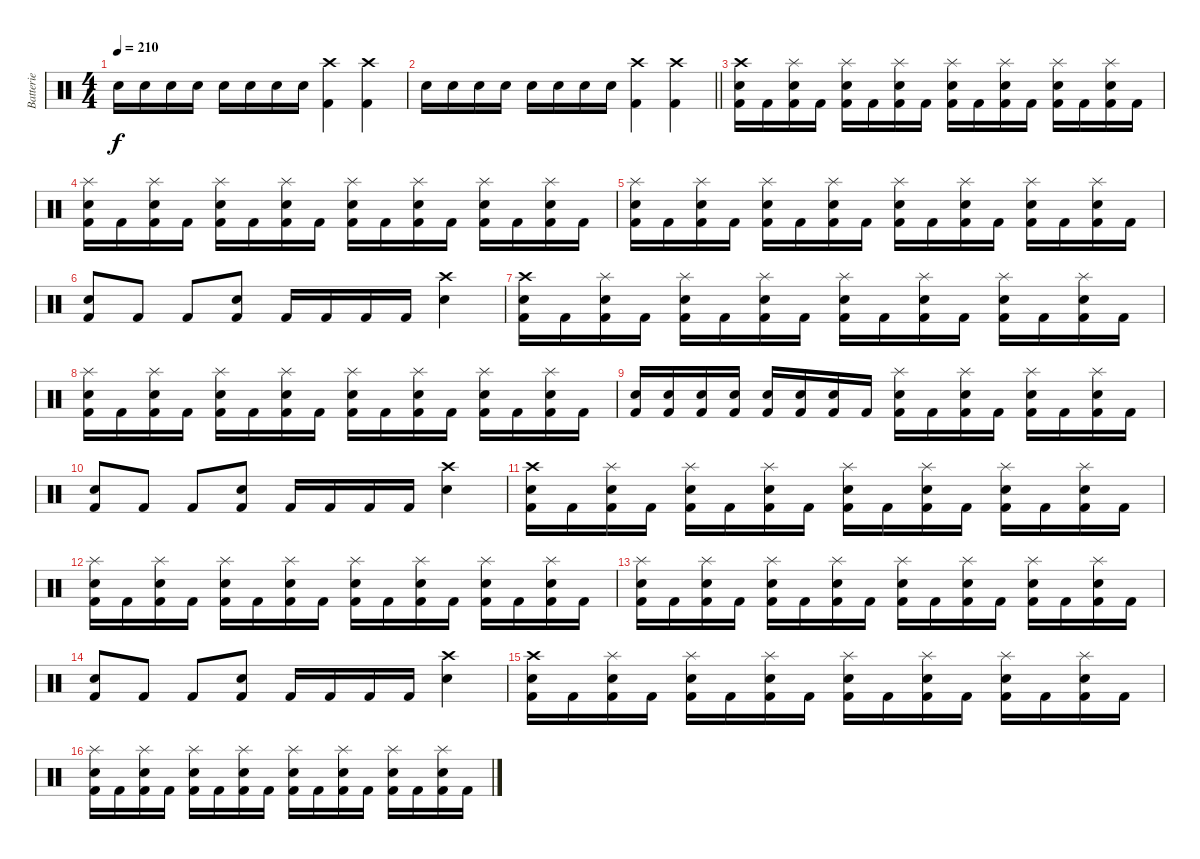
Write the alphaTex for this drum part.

\track ("Batterie" "Batterie") {instrument percussion}
\staff {score}
\articulation defaults
\ts (4 4)
\tempo 210
\clef neutral
\ks c "Electric Snare (hit)".16{dy f} "Electric Snare (hit)".16 "Electric Snare (hit)".16 "Electric Snare (hit)".16 "Electric Snare (hit)".16 "Electric Snare (hit)".16 "Electric Snare (hit)".16 "Electric Snare (hit)".16
("Crash high (hit)" "Kick (hit) 2").4 ("Crash high (hit)" "Kick (hit) 2").4 |
\barLineRight lightlight "Electric Snare (hit)".16 "Electric Snare (hit)".16 "Electric Snare (hit)".16 "Electric Snare (hit)".16 "Electric Snare (hit)".16 "Electric Snare (hit)".16 "Electric Snare (hit)".16 "Electric Snare (hit)".16
("Crash high (hit)" "Kick (hit) 2").4 ("Crash high (hit)" "Kick (hit) 2").4 |
("Crash high (hit)" "Electric Snare (hit)" "Kick (hit) 2").16 "Kick (hit) 2".16 ("Splash (hit)" "Electric Snare (hit)" "Kick (hit) 2").16 "Kick (hit) 2".16 ("Splash (hit)" "Electric Snare (hit)" "Kick (hit) 2").16 "Kick (hit) 2".16 ("Splash (hit)" "Electric Snare (hit)" "Kick (hit) 2").16 "Kick (hit) 2".16 ("Splash (hit)" "Electric Snare (hit)" "Kick (hit) 2").16 "Kick (hit) 2".16 ("Splash (hit)" "Electric Snare (hit)" "Kick (hit) 2").16 "Kick (hit) 2".16 ("Splash (hit)" "Electric Snare (hit)" "Kick (hit) 2").16 "Kick (hit) 2".16 ("Splash (hit)" "Electric Snare (hit)" "Kick (hit) 2").16 "Kick (hit) 2".16 |
("Splash (hit)" "Electric Snare (hit)" "Kick (hit) 2").16 "Kick (hit) 2".16 ("Splash (hit)" "Electric Snare (hit)" "Kick (hit) 2").16 "Kick (hit) 2".16 ("Splash (hit)" "Electric Snare (hit)" "Kick (hit) 2").16 "Kick (hit) 2".16 ("Splash (hit)" "Electric Snare (hit)" "Kick (hit) 2").16 "Kick (hit) 2".16 ("Splash (hit)" "Electric Snare (hit)" "Kick (hit) 2").16 "Kick (hit) 2".16 ("Splash (hit)" "Electric Snare (hit)" "Kick (hit) 2").16 "Kick (hit) 2".16 ("Splash (hit)" "Electric Snare (hit)" "Kick (hit) 2").16 "Kick (hit) 2".16 ("Splash (hit)" "Electric Snare (hit)" "Kick (hit) 2").16 "Kick (hit) 2".16 |
("Splash (hit)" "Electric Snare (hit)" "Kick (hit) 2").16 "Kick (hit) 2".16 ("Splash (hit)" "Electric Snare (hit)" "Kick (hit) 2").16 "Kick (hit) 2".16 ("Splash (hit)" "Electric Snare (hit)" "Kick (hit) 2").16 "Kick (hit) 2".16 ("Splash (hit)" "Electric Snare (hit)" "Kick (hit) 2").16 "Kick (hit) 2".16 ("Splash (hit)" "Electric Snare (hit)" "Kick (hit) 2").16 "Kick (hit) 2".16 ("Splash (hit)" "Electric Snare (hit)" "Kick (hit) 2").16 "Kick (hit) 2".16 ("Splash (hit)" "Electric Snare (hit)" "Kick (hit) 2").16 "Kick (hit) 2".16 ("Splash (hit)" "Electric Snare (hit)" "Kick (hit) 2").16 "Kick (hit) 2".16 |
("Electric Snare (hit)" "Kick (hit) 2").8 "Kick (hit) 2".8 "Kick (hit) 2".8 ("Electric Snare (hit)" "Kick (hit) 2").8 "Kick (hit) 2".16 "Kick (hit) 2".16 "Kick (hit) 2".16 "Kick (hit) 2".16 ("Crash high (hit)" "Electric Snare (hit)").4 |
("Crash high (hit)" "Electric Snare (hit)" "Kick (hit) 2").16 "Kick (hit) 2".16 ("Splash (hit)" "Electric Snare (hit)" "Kick (hit) 2").16 "Kick (hit) 2".16 ("Splash (hit)" "Electric Snare (hit)" "Kick (hit) 2").16 "Kick (hit) 2".16 ("Splash (hit)" "Electric Snare (hit)" "Kick (hit) 2").16 "Kick (hit) 2".16 ("Splash (hit)" "Electric Snare (hit)" "Kick (hit) 2").16 "Kick (hit) 2".16 ("Splash (hit)" "Electric Snare (hit)" "Kick (hit) 2").16 "Kick (hit) 2".16 ("Splash (hit)" "Electric Snare (hit)" "Kick (hit) 2").16 "Kick (hit) 2".16 ("Splash (hit)" "Electric Snare (hit)" "Kick (hit) 2").16 "Kick (hit) 2".16 |
("Splash (hit)" "Electric Snare (hit)" "Kick (hit) 2").16 "Kick (hit) 2".16 ("Splash (hit)" "Electric Snare (hit)" "Kick (hit) 2").16 "Kick (hit) 2".16 ("Splash (hit)" "Electric Snare (hit)" "Kick (hit) 2").16 "Kick (hit) 2".16 ("Splash (hit)" "Electric Snare (hit)" "Kick (hit) 2").16 "Kick (hit) 2".16 ("Splash (hit)" "Electric Snare (hit)" "Kick (hit) 2").16 "Kick (hit) 2".16 ("Splash (hit)" "Electric Snare (hit)" "Kick (hit) 2").16 "Kick (hit) 2".16 ("Splash (hit)" "Electric Snare (hit)" "Kick (hit) 2").16 "Kick (hit) 2".16 ("Splash (hit)" "Electric Snare (hit)" "Kick (hit) 2").16 "Kick (hit) 2".16 |
("Electric Snare (hit)" "Kick (hit) 2").16 ("Electric Snare (hit)" "Kick (hit) 2").16 ("Electric Snare (hit)" "Kick (hit) 2").16 ("Electric Snare (hit)" "Kick (hit) 2").16 ("Electric Snare (hit)" "Kick (hit) 2").16 ("Electric Snare (hit)" "Kick (hit) 2").16 ("Electric Snare (hit)" "Kick (hit) 2").16 "Kick (hit) 2".16 ("Splash (hit)" "Electric Snare (hit)" "Kick (hit) 2").16 "Kick (hit) 2".16 ("Splash (hit)" "Electric Snare (hit)" "Kick (hit) 2").16 "Kick (hit) 2".16 ("Splash (hit)" "Electric Snare (hit)" "Kick (hit) 2").16 "Kick (hit) 2".16 ("Splash (hit)" "Electric Snare (hit)" "Kick (hit) 2").16 "Kick (hit) 2".16 |
("Electric Snare (hit)" "Kick (hit) 2").8 "Kick (hit) 2".8 "Kick (hit) 2".8 ("Electric Snare (hit)" "Kick (hit) 2").8 "Kick (hit) 2".16 "Kick (hit) 2".16 "Kick (hit) 2".16 "Kick (hit) 2".16 ("Crash high (hit)" "Electric Snare (hit)").4 |
("Crash high (hit)" "Electric Snare (hit)" "Kick (hit) 2").16 "Kick (hit) 2".16 ("Splash (hit)" "Electric Snare (hit)" "Kick (hit) 2").16 "Kick (hit) 2".16 ("Splash (hit)" "Electric Snare (hit)" "Kick (hit) 2").16 "Kick (hit) 2".16 ("Splash (hit)" "Electric Snare (hit)" "Kick (hit) 2").16 "Kick (hit) 2".16 ("Splash (hit)" "Electric Snare (hit)" "Kick (hit) 2").16 "Kick (hit) 2".16 ("Splash (hit)" "Electric Snare (hit)" "Kick (hit) 2").16 "Kick (hit) 2".16 ("Splash (hit)" "Electric Snare (hit)" "Kick (hit) 2").16 "Kick (hit) 2".16 ("Splash (hit)" "Electric Snare (hit)" "Kick (hit) 2").16 "Kick (hit) 2".16 |
("Splash (hit)" "Electric Snare (hit)" "Kick (hit) 2").16 "Kick (hit) 2".16 ("Splash (hit)" "Electric Snare (hit)" "Kick (hit) 2").16 "Kick (hit) 2".16 ("Splash (hit)" "Electric Snare (hit)" "Kick (hit) 2").16 "Kick (hit) 2".16 ("Splash (hit)" "Electric Snare (hit)" "Kick (hit) 2").16 "Kick (hit) 2".16 ("Splash (hit)" "Electric Snare (hit)" "Kick (hit) 2").16 "Kick (hit) 2".16 ("Splash (hit)" "Electric Snare (hit)" "Kick (hit) 2").16 "Kick (hit) 2".16 ("Splash (hit)" "Electric Snare (hit)" "Kick (hit) 2").16 "Kick (hit) 2".16 ("Splash (hit)" "Electric Snare (hit)" "Kick (hit) 2").16 "Kick (hit) 2".16 |
("Splash (hit)" "Electric Snare (hit)" "Kick (hit) 2").16 "Kick (hit) 2".16 ("Splash (hit)" "Electric Snare (hit)" "Kick (hit) 2").16 "Kick (hit) 2".16 ("Splash (hit)" "Electric Snare (hit)" "Kick (hit) 2").16 "Kick (hit) 2".16 ("Splash (hit)" "Electric Snare (hit)" "Kick (hit) 2").16 "Kick (hit) 2".16 ("Splash (hit)" "Electric Snare (hit)" "Kick (hit) 2").16 "Kick (hit) 2".16 ("Splash (hit)" "Electric Snare (hit)" "Kick (hit) 2").16 "Kick (hit) 2".16 ("Splash (hit)" "Electric Snare (hit)" "Kick (hit) 2").16 "Kick (hit) 2".16 ("Splash (hit)" "Electric Snare (hit)" "Kick (hit) 2").16 "Kick (hit) 2".16 |
("Electric Snare (hit)" "Kick (hit) 2").8 "Kick (hit) 2".8 "Kick (hit) 2".8 ("Electric Snare (hit)" "Kick (hit) 2").8 "Kick (hit) 2".16 "Kick (hit) 2".16 "Kick (hit) 2".16 "Kick (hit) 2".16 ("Crash high (hit)" "Electric Snare (hit)").4 |
("Crash high (hit)" "Electric Snare (hit)" "Kick (hit) 2").16 "Kick (hit) 2".16 ("Splash (hit)" "Electric Snare (hit)" "Kick (hit) 2").16 "Kick (hit) 2".16 ("Splash (hit)" "Electric Snare (hit)" "Kick (hit) 2").16 "Kick (hit) 2".16 ("Splash (hit)" "Electric Snare (hit)" "Kick (hit) 2").16 "Kick (hit) 2".16 ("Splash (hit)" "Electric Snare (hit)" "Kick (hit) 2").16 "Kick (hit) 2".16 ("Splash (hit)" "Electric Snare (hit)" "Kick (hit) 2").16 "Kick (hit) 2".16 ("Splash (hit)" "Electric Snare (hit)" "Kick (hit) 2").16 "Kick (hit) 2".16 ("Splash (hit)" "Electric Snare (hit)" "Kick (hit) 2").16 "Kick (hit) 2".16 |
("Splash (hit)" "Electric Snare (hit)" "Kick (hit) 2").16 "Kick (hit) 2".16 ("Splash (hit)" "Electric Snare (hit)" "Kick (hit) 2").16 "Kick (hit) 2".16 ("Splash (hit)" "Electric Snare (hit)" "Kick (hit) 2").16 "Kick (hit) 2".16 ("Splash (hit)" "Electric Snare (hit)" "Kick (hit) 2").16 "Kick (hit) 2".16 ("Splash (hit)" "Electric Snare (hit)" "Kick (hit) 2").16 "Kick (hit) 2".16 ("Splash (hit)" "Electric Snare (hit)" "Kick (hit) 2").16 "Kick (hit) 2".16 ("Splash (hit)" "Electric Snare (hit)" "Kick (hit) 2").16 "Kick (hit) 2".16 ("Splash (hit)" "Electric Snare (hit)" "Kick (hit) 2").16 "Kick (hit) 2".16
